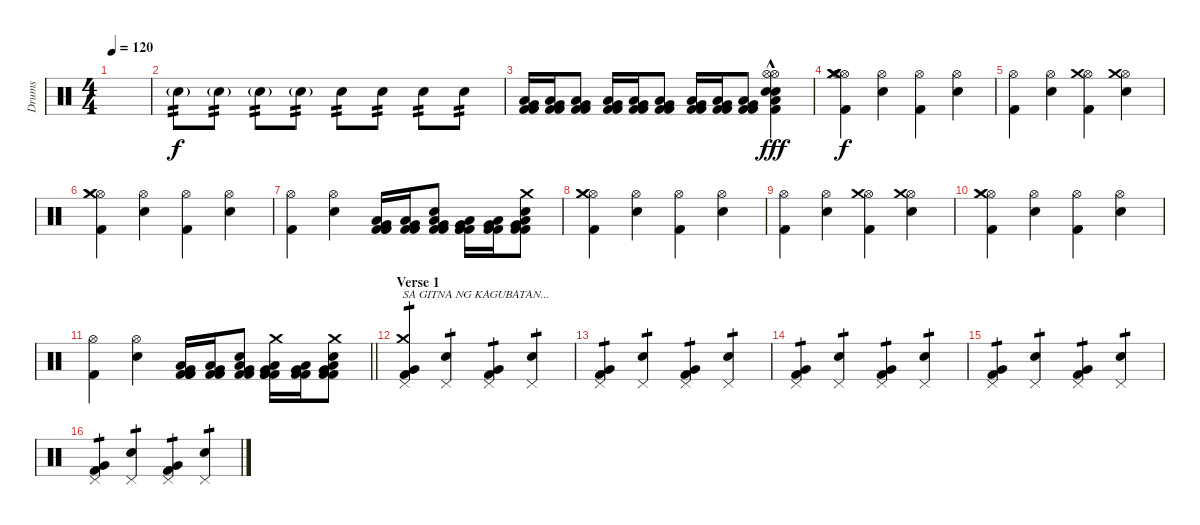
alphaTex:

\track ("Drums" "Drums") {instrument percussion}
\staff {score}
\articulation defaults
\ts (4 4)
\tempo 120
\clef neutral
\ks c
|
"Electric Snare (hit)"{g}.8{tp 2} "Electric Snare (hit)"{g}.8{tp 2} "Electric Snare (hit)"{g}.8{tp 2} "Electric Snare (hit)"{g}.8{tp 2} "Electric Snare (hit)".8{tp 2 dy f} "Electric Snare (hit)".8{tp 2} "Electric Snare (hit)".8{tp 2} "Electric Snare (hit)".8{tp 2} |
("Low Tom (hit)" "Kick (hit) 2" "Very Low Tom (hit)" "Kick (hit) 2").16{volume 16 balance 16} ("Low Tom (hit)" "Kick (hit) 2" "Very Low Tom (hit)" "Kick (hit) 2").16 ("Low Tom (hit)" "Kick (hit) 2" "Very Low Tom (hit)" "Kick (hit) 2").8 ("Low Tom (hit)" "Kick (hit) 2" "Very Low Tom (hit)" "Kick (hit) 2").16{balance 0} ("Low Tom (hit)" "Kick (hit) 2" "Very Low Tom (hit)" "Kick (hit) 2").16 ("Low Tom (hit)" "Kick (hit) 2" "Very Low Tom (hit)" "Kick (hit) 2").8 ("Low Tom (hit)" "Kick (hit) 2" "Very Low Tom (hit)" "Kick (hit) 2").16{balance 8} ("Low Tom (hit)" "Kick (hit) 2" "Very Low Tom (hit)" "Kick (hit) 2").16 ("Low Tom (hit)" "Kick (hit) 2" "Very Low Tom (hit)" "Kick (hit) 2").8 ("Kick (hit) 2"{hac} "Snare (hit) 2"{hac} "Low Tom (hit)"{hac} "Electric Snare (hit)"{hac} "Hi-Hat (open)"{hac} "Hi-Hat (open)").4{dy fff balance 8} |
("Hi-Hat (open)" "Hi-Hat (open)" "Crash medium (hit)" "Kick (hit) 2" "Crash medium (hit)" "Crash medium (hit)").4{dy f} ("Hi-Hat (open)" "Electric Snare (hit)").4 ("Hi-Hat (open)" "Kick (hit) 2").4 ("Hi-Hat (open)" "Electric Snare (hit)").4 |
("Hi-Hat (open)" "Kick (hit) 2").4 ("Hi-Hat (open)" "Electric Snare (hit)").4 ("Hi-Hat (open)" "Kick (hit) 2" "Crash medium (hit)").4 ("Hi-Hat (open)" "Electric Snare (hit)" "Crash medium (hit)").4 |
("Hi-Hat (open)" "Crash medium (hit)" "Kick (hit) 2" "Crash medium (hit)").4 ("Hi-Hat (open)" "Electric Snare (hit)").4 ("Hi-Hat (open)" "Kick (hit) 2").4 ("Hi-Hat (open)" "Electric Snare (hit)").4 |
("Hi-Hat (open)" "Kick (hit) 2").4 ("Hi-Hat (open)" "Electric Snare (hit)").4 ("Low Tom (hit)" "Kick (hit) 2" "Very Low Tom (hit)" "Kick (hit) 2" "Kick (hit) 2").16 ("Low Tom (hit)" "Kick (hit) 2" "Very Low Tom (hit)" "Kick (hit) 2").16 ("Low Tom (hit)" "Kick (hit) 2" "Very Low Tom (hit)" "Kick (hit) 2" "Electric Snare (hit)").8 ("Low Tom (hit)" "Kick (hit) 2" "Very Low Tom (hit)" "Kick (hit) 2" "Kick (hit) 2").16 ("Low Tom (hit)" "Kick (hit) 2" "Very Low Tom (hit)" "Kick (hit) 2").16 ("Low Tom (hit)" "Kick (hit) 2" "Very Low Tom (hit)" "Kick (hit) 2" "Crash medium (hit)" "Electric Snare (hit)").8 |
("Hi-Hat (open)" "Crash medium (hit)" "Kick (hit) 2" "Crash medium (hit)").4 ("Hi-Hat (open)" "Electric Snare (hit)").4 ("Hi-Hat (open)" "Kick (hit) 2").4 ("Hi-Hat (open)" "Electric Snare (hit)").4 |
("Hi-Hat (open)" "Kick (hit) 2").4 ("Hi-Hat (open)" "Electric Snare (hit)").4 ("Hi-Hat (open)" "Kick (hit) 2" "Crash medium (hit)").4 ("Hi-Hat (open)" "Electric Snare (hit)" "Crash medium (hit)").4 |
("Hi-Hat (open)" "Crash medium (hit)" "Kick (hit) 2" "Crash medium (hit)").4 ("Hi-Hat (open)" "Electric Snare (hit)").4 ("Hi-Hat (open)" "Kick (hit) 2").4 ("Hi-Hat (open)" "Electric Snare (hit)").4 |
\barLineRight lightlight
("Hi-Hat (open)" "Kick (hit) 2").4 ("Hi-Hat (open)" "Electric Snare (hit)").4 ("Low Tom (hit)" "Kick (hit) 2" "Very Low Tom (hit)" "Kick (hit) 2" "Kick (hit) 2").16 ("Low Tom (hit)" "Kick (hit) 2" "Very Low Tom (hit)" "Kick (hit) 2").16 ("Low Tom (hit)" "Kick (hit) 2" "Very Low Tom (hit)" "Kick (hit) 2" "Electric Snare (hit)").8 ("Low Tom (hit)" "Kick (hit) 2" "Very Low Tom (hit)" "Kick (hit) 2" "Crash medium (hit)" "Kick (hit) 2").16 ("Low Tom (hit)" "Kick (hit) 2" "Very Low Tom (hit)" "Kick (hit) 2").16 ("Low Tom (hit)" "Kick (hit) 2" "Very Low Tom (hit)" "Kick (hit) 2" "Crash medium (hit)" "Electric Snare (hit)").8 |
\section ("" "Verse 1")
("Pedal Hi-Hat (hit)" "Crash medium (hit)" "Kick (hit) 2" "Very Low Tom (hit)").4{txt "SA GITNA NG KAGUBATAN..." tp 1} ("Pedal Hi-Hat (hit)" "Electric Snare (hit)").4{tp 1} ("Pedal Hi-Hat (hit)" "Kick (hit) 2" "Very Low Tom (hit)").4{tp 1} ("Pedal Hi-Hat (hit)" "Electric Snare (hit)").4{tp 1} |
("Pedal Hi-Hat (hit)" "Kick (hit) 2" "Very Low Tom (hit)").4{tp 1} ("Pedal Hi-Hat (hit)" "Electric Snare (hit)").4{tp 1} ("Pedal Hi-Hat (hit)" "Kick (hit) 2" "Very Low Tom (hit)").4{tp 1} ("Pedal Hi-Hat (hit)" "Electric Snare (hit)").4{tp 1} |
("Pedal Hi-Hat (hit)" "Kick (hit) 2" "Very Low Tom (hit)").4{tp 1} ("Pedal Hi-Hat (hit)" "Electric Snare (hit)").4{tp 1} ("Pedal Hi-Hat (hit)" "Kick (hit) 2" "Very Low Tom (hit)").4{tp 1} ("Pedal Hi-Hat (hit)" "Electric Snare (hit)").4{tp 1} |
("Pedal Hi-Hat (hit)" "Kick (hit) 2" "Very Low Tom (hit)").4{tp 1} ("Pedal Hi-Hat (hit)" "Electric Snare (hit)").4{tp 1} ("Pedal Hi-Hat (hit)" "Kick (hit) 2" "Very Low Tom (hit)").4{tp 1} ("Pedal Hi-Hat (hit)" "Electric Snare (hit)").4{tp 1} |
("Pedal Hi-Hat (hit)" "Kick (hit) 2" "Very Low Tom (hit)").4{tp 1} ("Pedal Hi-Hat (hit)" "Electric Snare (hit)").4{tp 1} ("Pedal Hi-Hat (hit)" "Kick (hit) 2" "Very Low Tom (hit)").4{tp 1} ("Pedal Hi-Hat (hit)" "Electric Snare (hit)").4{tp 1}
